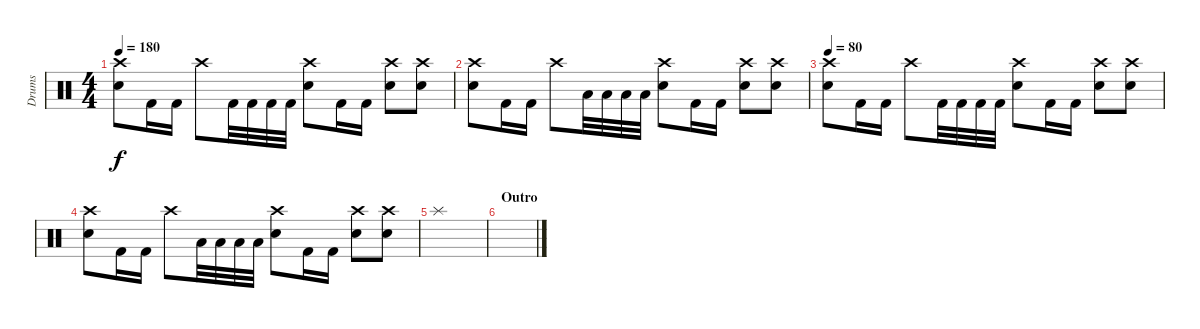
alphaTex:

\track ("Drums" "Drums") {instrument percussion}
\staff {score}
\articulation defaults
\ts (4 4)
\tempo 180
\clef neutral
\ks c
("Crash high (hit)" "Electric Snare (hit)").8{dy f} "Kick (hit) 2".16 "Kick (hit) 2".16 "Crash high (hit)".8 "Kick (hit) 2".32 "Kick (hit) 2".32 "Kick (hit) 2".32 "Kick (hit) 2".32 ("Crash high (hit)" "Electric Snare (hit)").8 "Kick (hit) 2".16 "Kick (hit) 2".16 ("Crash high (hit)" "Electric Snare (hit)").8 ("Crash high (hit)" "Electric Snare (hit)").8 |
("Crash high (hit)" "Electric Snare (hit)").8 "Kick (hit) 2".16 "Kick (hit) 2".16 "Crash high (hit)".8 "Low Tom (hit)".32 "Low Tom (hit)".32 "Low Tom (hit)".32 "Low Tom (hit)".32 ("Crash high (hit)" "Electric Snare (hit)").8 "Kick (hit) 2".16 "Kick (hit) 2".16 ("Crash high (hit)" "Electric Snare (hit)").8 ("Crash high (hit)" "Electric Snare (hit)").8 |
\tempo 80
("Crash high (hit)" "Electric Snare (hit)").8 "Kick (hit) 2".16 "Kick (hit) 2".16 "Crash high (hit)".8 "Kick (hit) 2".32 "Kick (hit) 2".32 "Kick (hit) 2".32 "Kick (hit) 2".32 ("Crash high (hit)" "Electric Snare (hit)").8 "Kick (hit) 2".16 "Kick (hit) 2".16 ("Crash high (hit)" "Electric Snare (hit)").8 ("Crash high (hit)" "Electric Snare (hit)").8 |
("Crash high (hit)" "Electric Snare (hit)").8 "Kick (hit) 2".16 "Kick (hit) 2".16 "Crash high (hit)".8 "Low Tom (hit)".32 "Low Tom (hit)".32 "Low Tom (hit)".32 "Low Tom (hit)".32 ("Crash high (hit)" "Electric Snare (hit)").8 "Kick (hit) 2".16 "Kick (hit) 2".16 ("Crash high (hit)" "Electric Snare (hit)").8 ("Crash high (hit)" "Electric Snare (hit)").8 |
"Splash (hit)".1 |
\section ("" "Outro")
